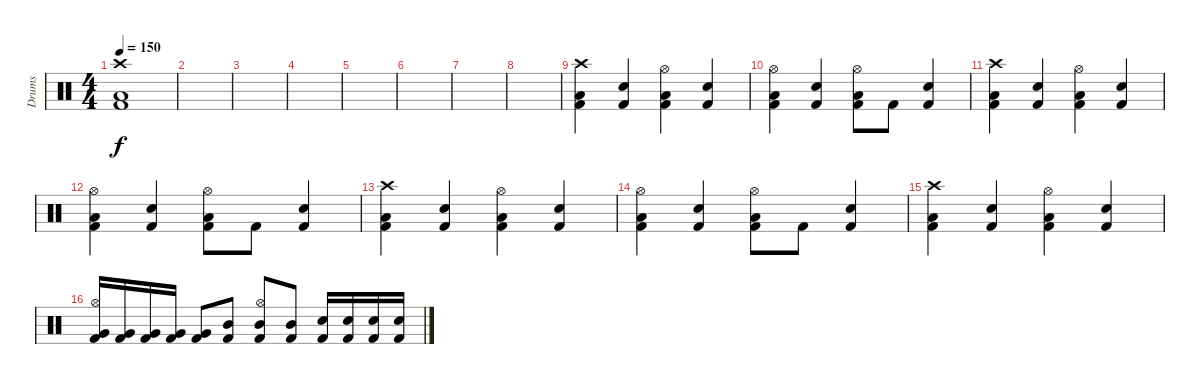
\track ("Drums" "Drums") {instrument percussion}
\staff {score}
\articulation defaults
\ts (4 4)
\tempo 150
\clef neutral
\ks c
("Crash high (hit)" "Low Floor Tom (hit)" "Kick (hit) 2").1{dy f} |
|
|
|
|
|
|
|
("Crash high (hit)" "Low Floor Tom (hit)" "Kick (hit) 2").4 ("Snare (hit) 2" "Kick (hit) 2").4 ("Hi-Hat (open)" "Low Floor Tom (hit)" "Kick (hit) 2").4 ("Snare (hit) 2" "Kick (hit) 2").4 |
("Hi-Hat (open)" "Low Floor Tom (hit)" "Kick (hit) 2").4 ("Snare (hit) 2" "Kick (hit) 2").4 ("Hi-Hat (open)" "Low Floor Tom (hit)" "Kick (hit) 2").8 "Kick (hit) 2".8 ("Snare (hit) 2" "Kick (hit) 2").4 |
("Crash high (hit)" "Low Floor Tom (hit)" "Kick (hit) 2").4 ("Snare (hit) 2" "Kick (hit) 2").4 ("Hi-Hat (open)" "Low Floor Tom (hit)" "Kick (hit) 2").4 ("Snare (hit) 2" "Kick (hit) 2").4 |
("Hi-Hat (open)" "Low Floor Tom (hit)" "Kick (hit) 2").4 ("Snare (hit) 2" "Kick (hit) 2").4 ("Hi-Hat (open)" "Low Floor Tom (hit)" "Kick (hit) 2").8 "Kick (hit) 2".8 ("Snare (hit) 2" "Kick (hit) 2").4 |
("Crash high (hit)" "Low Floor Tom (hit)" "Kick (hit) 2").4 ("Snare (hit) 2" "Kick (hit) 2").4 ("Hi-Hat (open)" "Low Floor Tom (hit)" "Kick (hit) 2").4 ("Snare (hit) 2" "Kick (hit) 2").4 |
("Hi-Hat (open)" "Low Floor Tom (hit)" "Kick (hit) 2").4 ("Snare (hit) 2" "Kick (hit) 2").4 ("Hi-Hat (open)" "Low Floor Tom (hit)" "Kick (hit) 2").8 "Kick (hit) 2".8 ("Snare (hit) 2" "Kick (hit) 2").4 |
("Crash high (hit)" "Low Floor Tom (hit)" "Kick (hit) 2").4 ("Snare (hit) 2" "Kick (hit) 2").4 ("Hi-Hat (open)" "Low Floor Tom (hit)" "Kick (hit) 2").4 ("Snare (hit) 2" "Kick (hit) 2").4 |
("Hi-Hat (open)" "Very Low Tom (hit)" "Kick (hit) 2").16 ("Very Low Tom (hit)" "Kick (hit) 2").16 ("Very Low Tom (hit)" "Kick (hit) 2").16 ("Very Low Tom (hit)" "Kick (hit) 2").16 ("Very Low Tom (hit)" "Kick (hit) 2").8 ("Mid Tom (hit)" "Kick (hit) 2").8 ("Hi-Hat (open)" "Mid Tom (hit)" "Kick (hit) 2").8 ("Mid Tom (hit)" "Kick (hit) 2").8 ("Snare (hit) 2" "Kick (hit) 2").16 ("Snare (hit) 2" "Kick (hit) 2").16 ("Snare (hit) 2" "Kick (hit) 2").16 ("Snare (hit) 2" "Kick (hit) 2").16
